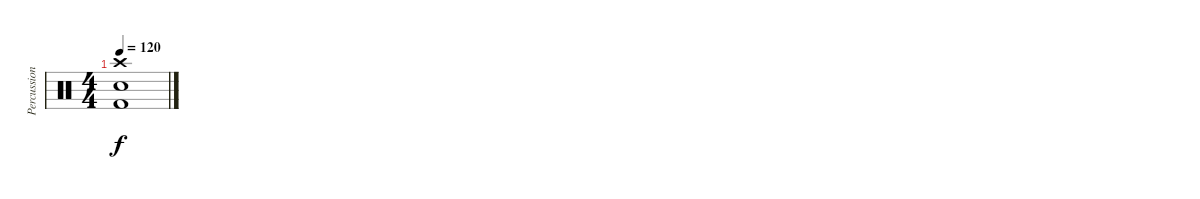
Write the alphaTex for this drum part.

\track ("Percussions" "Percussion") {instrument percussion}
\staff {score}
\articulation defaults
\ts (4 4)
\tempo 120
\clef neutral
\ks c
("Crash high (hit)" "Kick (hit) 2" "Snare (hit) 2").1{dy f}
